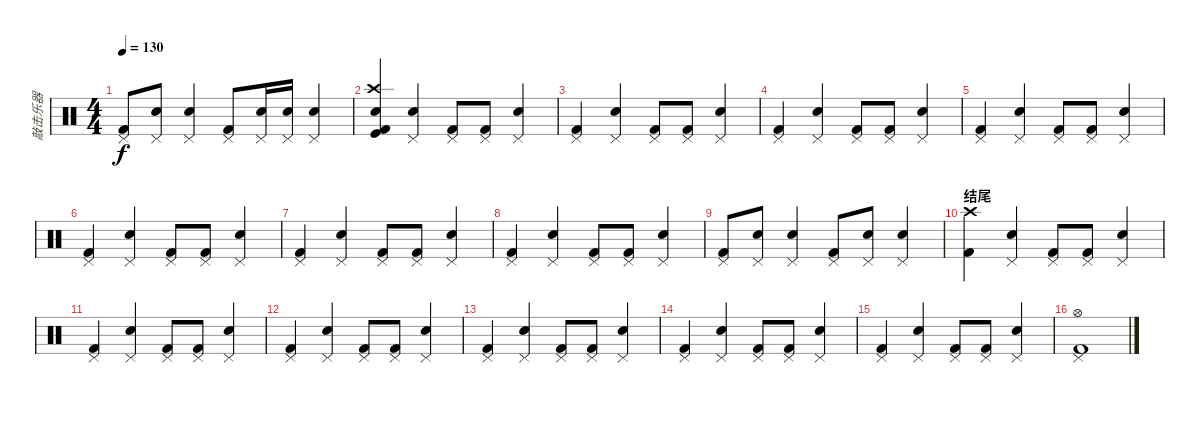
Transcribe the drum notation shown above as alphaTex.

\track ("敲击乐器" "敲击乐器") {instrument percussion}
\staff {score}
\articulation defaults
\ts (4 4)
\tempo 130
\clef neutral
\ks c
("Kick (hit) 2" "Pedal Hi-Hat (hit)").8{dy f} ("Snare (hit) 2" "Pedal Hi-Hat (hit)").8 ("Snare (hit) 2" "Pedal Hi-Hat (hit)").4 ("Kick (hit) 2" "Pedal Hi-Hat (hit)").8 ("Snare (hit) 2" "Pedal Hi-Hat (hit)").16 ("Snare (hit) 2" "Pedal Hi-Hat (hit)").16 ("Snare (hit) 2" "Pedal Hi-Hat (hit)").4 |
("Kick (hit) 2" "Crash high (hit)" "Kick (hit)" "Metronome (bell)").4 ("Snare (hit) 2" "Pedal Hi-Hat (hit)").4 ("Kick (hit) 2" "Pedal Hi-Hat (hit)").8 ("Kick (hit) 2" "Pedal Hi-Hat (hit)").8 ("Snare (hit) 2" "Pedal Hi-Hat (hit)").4 |
("Kick (hit) 2" "Pedal Hi-Hat (hit)").4 ("Snare (hit) 2" "Pedal Hi-Hat (hit)").4 ("Kick (hit) 2" "Pedal Hi-Hat (hit)").8 ("Kick (hit) 2" "Pedal Hi-Hat (hit)").8 ("Snare (hit) 2" "Pedal Hi-Hat (hit)").4 |
("Kick (hit) 2" "Pedal Hi-Hat (hit)").4 ("Snare (hit) 2" "Pedal Hi-Hat (hit)").4 ("Kick (hit) 2" "Pedal Hi-Hat (hit)").8 ("Kick (hit) 2" "Pedal Hi-Hat (hit)").8 ("Snare (hit) 2" "Pedal Hi-Hat (hit)").4 |
("Kick (hit) 2" "Pedal Hi-Hat (hit)").4 ("Snare (hit) 2" "Pedal Hi-Hat (hit)").4 ("Kick (hit) 2" "Pedal Hi-Hat (hit)").8 ("Kick (hit) 2" "Pedal Hi-Hat (hit)").8 ("Snare (hit) 2" "Pedal Hi-Hat (hit)").4 |
("Kick (hit) 2" "Pedal Hi-Hat (hit)").4 ("Snare (hit) 2" "Pedal Hi-Hat (hit)").4 ("Kick (hit) 2" "Pedal Hi-Hat (hit)").8 ("Kick (hit) 2" "Pedal Hi-Hat (hit)").8 ("Snare (hit) 2" "Pedal Hi-Hat (hit)").4 |
("Kick (hit) 2" "Pedal Hi-Hat (hit)").4 ("Snare (hit) 2" "Pedal Hi-Hat (hit)").4 ("Kick (hit) 2" "Pedal Hi-Hat (hit)").8 ("Kick (hit) 2" "Pedal Hi-Hat (hit)").8 ("Snare (hit) 2" "Pedal Hi-Hat (hit)").4 |
("Kick (hit) 2" "Pedal Hi-Hat (hit)").4 ("Snare (hit) 2" "Pedal Hi-Hat (hit)").4 ("Kick (hit) 2" "Pedal Hi-Hat (hit)").8 ("Kick (hit) 2" "Pedal Hi-Hat (hit)").8 ("Snare (hit) 2" "Pedal Hi-Hat (hit)").4 |
("Kick (hit) 2" "Pedal Hi-Hat (hit)").8 ("Snare (hit) 2" "Pedal Hi-Hat (hit)").8 ("Snare (hit) 2" "Pedal Hi-Hat (hit)").4 ("Kick (hit) 2" "Pedal Hi-Hat (hit)").8 ("Snare (hit) 2" "Pedal Hi-Hat (hit)").8 ("Snare (hit) 2" "Pedal Hi-Hat (hit)").4 |
\section ("" "结尾")
("Kick (hit) 2" "Crash high (hit)").4 ("Snare (hit) 2" "Pedal Hi-Hat (hit)").4 ("Kick (hit) 2" "Pedal Hi-Hat (hit)").8 ("Kick (hit) 2" "Pedal Hi-Hat (hit)").8 ("Snare (hit) 2" "Pedal Hi-Hat (hit)").4 |
("Kick (hit) 2" "Pedal Hi-Hat (hit)").4 ("Snare (hit) 2" "Pedal Hi-Hat (hit)").4 ("Kick (hit) 2" "Pedal Hi-Hat (hit)").8 ("Kick (hit) 2" "Pedal Hi-Hat (hit)").8 ("Snare (hit) 2" "Pedal Hi-Hat (hit)").4 |
("Kick (hit) 2" "Pedal Hi-Hat (hit)").4 ("Snare (hit) 2" "Pedal Hi-Hat (hit)").4 ("Kick (hit) 2" "Pedal Hi-Hat (hit)").8 ("Kick (hit) 2" "Pedal Hi-Hat (hit)").8 ("Snare (hit) 2" "Pedal Hi-Hat (hit)").4 |
("Kick (hit) 2" "Pedal Hi-Hat (hit)").4 ("Snare (hit) 2" "Pedal Hi-Hat (hit)").4 ("Kick (hit) 2" "Pedal Hi-Hat (hit)").8 ("Kick (hit) 2" "Pedal Hi-Hat (hit)").8 ("Snare (hit) 2" "Pedal Hi-Hat (hit)").4 |
("Kick (hit) 2" "Pedal Hi-Hat (hit)").4 ("Snare (hit) 2" "Pedal Hi-Hat (hit)").4 ("Kick (hit) 2" "Pedal Hi-Hat (hit)").8 ("Kick (hit) 2" "Pedal Hi-Hat (hit)").8 ("Snare (hit) 2" "Pedal Hi-Hat (hit)").4 |
("Kick (hit) 2" "Pedal Hi-Hat (hit)").4 ("Snare (hit) 2" "Pedal Hi-Hat (hit)").4 ("Kick (hit) 2" "Pedal Hi-Hat (hit)").8 ("Kick (hit) 2" "Pedal Hi-Hat (hit)").8 ("Snare (hit) 2" "Pedal Hi-Hat (hit)").4 |
("Kick (hit) 2" "Pedal Hi-Hat (hit)" "Hi-Hat (open)").1
